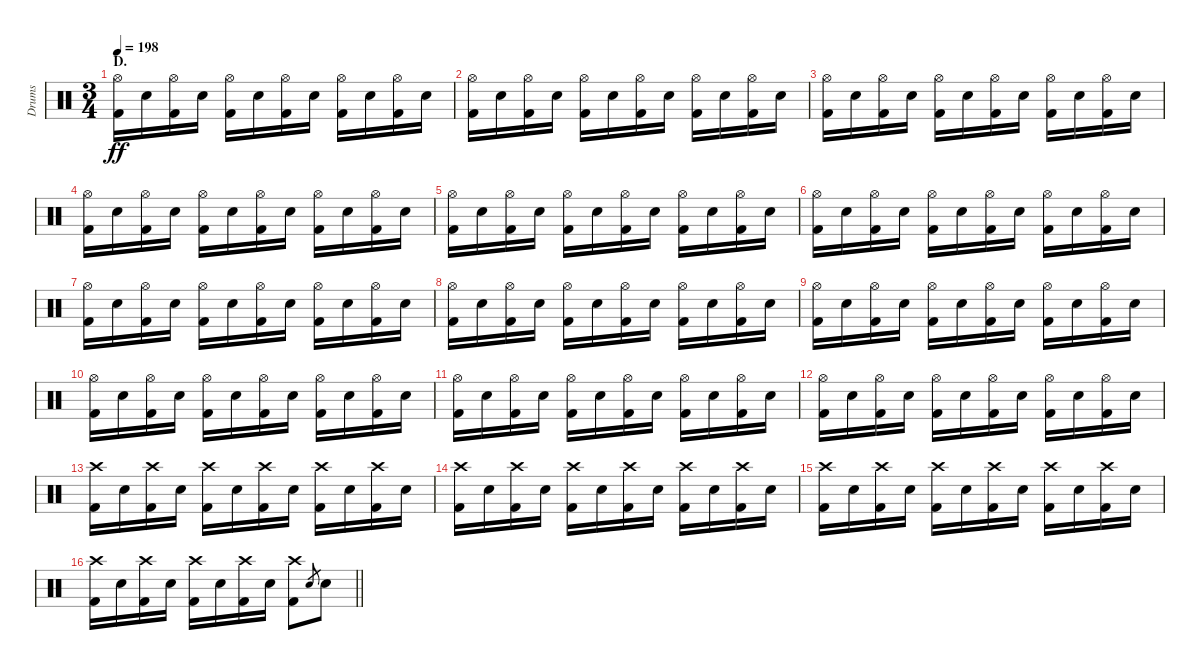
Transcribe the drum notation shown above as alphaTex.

\track ("Drums" "Drums") {instrument percussion}
\staff {score}
\articulation defaults
\ts (3 4)
\section ("" "D.")
\tempo 198
\clef neutral
\ks c
("Hi-Hat (open)" "Kick (hit) 2").16{dy ff volume 13} "Electric Snare (hit)".16 ("Hi-Hat (open)" "Kick (hit) 2").16 "Electric Snare (hit)".16 ("Hi-Hat (open)" "Kick (hit) 2").16 "Electric Snare (hit)".16 ("Hi-Hat (open)" "Kick (hit) 2").16 "Electric Snare (hit)".16 ("Hi-Hat (open)" "Kick (hit) 2").16 "Electric Snare (hit)".16 ("Hi-Hat (open)" "Kick (hit) 2").16 "Electric Snare (hit)".16 |
("Hi-Hat (open)" "Kick (hit) 2").16 "Electric Snare (hit)".16 ("Hi-Hat (open)" "Kick (hit) 2").16 "Electric Snare (hit)".16 ("Hi-Hat (open)" "Kick (hit) 2").16 "Electric Snare (hit)".16 ("Hi-Hat (open)" "Kick (hit) 2").16 "Electric Snare (hit)".16 ("Hi-Hat (open)" "Kick (hit) 2").16 "Electric Snare (hit)".16 ("Hi-Hat (open)" "Kick (hit) 2").16 "Electric Snare (hit)".16 |
("Hi-Hat (open)" "Kick (hit) 2").16 "Electric Snare (hit)".16 ("Hi-Hat (open)" "Kick (hit) 2").16 "Electric Snare (hit)".16 ("Hi-Hat (open)" "Kick (hit) 2").16 "Electric Snare (hit)".16 ("Hi-Hat (open)" "Kick (hit) 2").16 "Electric Snare (hit)".16 ("Hi-Hat (open)" "Kick (hit) 2").16 "Electric Snare (hit)".16 ("Hi-Hat (open)" "Kick (hit) 2").16 "Electric Snare (hit)".16 |
("Hi-Hat (open)" "Kick (hit) 2").16 "Electric Snare (hit)".16 ("Hi-Hat (open)" "Kick (hit) 2").16 "Electric Snare (hit)".16 ("Hi-Hat (open)" "Kick (hit) 2").16 "Electric Snare (hit)".16 ("Hi-Hat (open)" "Kick (hit) 2").16 "Electric Snare (hit)".16 ("Hi-Hat (open)" "Kick (hit) 2").16 "Electric Snare (hit)".16 ("Hi-Hat (open)" "Kick (hit) 2").16 "Electric Snare (hit)".16 |
("Hi-Hat (open)" "Kick (hit) 2").16 "Electric Snare (hit)".16 ("Hi-Hat (open)" "Kick (hit) 2").16 "Electric Snare (hit)".16 ("Hi-Hat (open)" "Kick (hit) 2").16 "Electric Snare (hit)".16 ("Hi-Hat (open)" "Kick (hit) 2").16 "Electric Snare (hit)".16 ("Hi-Hat (open)" "Kick (hit) 2").16 "Electric Snare (hit)".16 ("Hi-Hat (open)" "Kick (hit) 2").16 "Electric Snare (hit)".16 |
("Hi-Hat (open)" "Kick (hit) 2").16 "Electric Snare (hit)".16 ("Hi-Hat (open)" "Kick (hit) 2").16 "Electric Snare (hit)".16 ("Hi-Hat (open)" "Kick (hit) 2").16 "Electric Snare (hit)".16 ("Hi-Hat (open)" "Kick (hit) 2").16 "Electric Snare (hit)".16 ("Hi-Hat (open)" "Kick (hit) 2").16 "Electric Snare (hit)".16 ("Hi-Hat (open)" "Kick (hit) 2").16 "Electric Snare (hit)".16 |
("Hi-Hat (open)" "Kick (hit) 2").16 "Electric Snare (hit)".16 ("Hi-Hat (open)" "Kick (hit) 2").16 "Electric Snare (hit)".16 ("Hi-Hat (open)" "Kick (hit) 2").16 "Electric Snare (hit)".16 ("Hi-Hat (open)" "Kick (hit) 2").16 "Electric Snare (hit)".16 ("Hi-Hat (open)" "Kick (hit) 2").16 "Electric Snare (hit)".16 ("Hi-Hat (open)" "Kick (hit) 2").16 "Electric Snare (hit)".16 |
("Hi-Hat (open)" "Kick (hit) 2").16 "Electric Snare (hit)".16 ("Hi-Hat (open)" "Kick (hit) 2").16 "Electric Snare (hit)".16 ("Hi-Hat (open)" "Kick (hit) 2").16 "Electric Snare (hit)".16 ("Hi-Hat (open)" "Kick (hit) 2").16 "Electric Snare (hit)".16 ("Hi-Hat (open)" "Kick (hit) 2").16 "Electric Snare (hit)".16 ("Hi-Hat (open)" "Kick (hit) 2").16 "Electric Snare (hit)".16 |
("Hi-Hat (open)" "Kick (hit) 2").16 "Electric Snare (hit)".16 ("Hi-Hat (open)" "Kick (hit) 2").16 "Electric Snare (hit)".16 ("Hi-Hat (open)" "Kick (hit) 2").16 "Electric Snare (hit)".16 ("Hi-Hat (open)" "Kick (hit) 2").16 "Electric Snare (hit)".16 ("Hi-Hat (open)" "Kick (hit) 2").16 "Electric Snare (hit)".16 ("Hi-Hat (open)" "Kick (hit) 2").16 "Electric Snare (hit)".16 |
("Hi-Hat (open)" "Kick (hit) 2").16 "Electric Snare (hit)".16 ("Hi-Hat (open)" "Kick (hit) 2").16 "Electric Snare (hit)".16 ("Hi-Hat (open)" "Kick (hit) 2").16 "Electric Snare (hit)".16 ("Hi-Hat (open)" "Kick (hit) 2").16 "Electric Snare (hit)".16 ("Hi-Hat (open)" "Kick (hit) 2").16 "Electric Snare (hit)".16 ("Hi-Hat (open)" "Kick (hit) 2").16 "Electric Snare (hit)".16 |
("Hi-Hat (open)" "Kick (hit) 2").16 "Electric Snare (hit)".16 ("Hi-Hat (open)" "Kick (hit) 2").16 "Electric Snare (hit)".16 ("Hi-Hat (open)" "Kick (hit) 2").16 "Electric Snare (hit)".16 ("Hi-Hat (open)" "Kick (hit) 2").16 "Electric Snare (hit)".16 ("Hi-Hat (open)" "Kick (hit) 2").16 "Electric Snare (hit)".16 ("Hi-Hat (open)" "Kick (hit) 2").16 "Electric Snare (hit)".16 |
("Hi-Hat (open)" "Kick (hit) 2").16 "Electric Snare (hit)".16 ("Hi-Hat (open)" "Kick (hit) 2").16 "Electric Snare (hit)".16 ("Hi-Hat (open)" "Kick (hit) 2").16 "Electric Snare (hit)".16 ("Hi-Hat (open)" "Kick (hit) 2").16 "Electric Snare (hit)".16 ("Hi-Hat (open)" "Kick (hit) 2").16 "Electric Snare (hit)".16 ("Hi-Hat (open)" "Kick (hit) 2").16 "Electric Snare (hit)".16 |
("Crash high (hit)" "Kick (hit) 2").16 "Electric Snare (hit)".16 ("Crash high (hit)" "Kick (hit) 2").16 "Electric Snare (hit)".16 ("Crash high (hit)" "Kick (hit) 2").16 "Electric Snare (hit)".16 ("Crash high (hit)" "Kick (hit) 2").16 "Electric Snare (hit)".16 ("Crash high (hit)" "Kick (hit) 2").16 "Electric Snare (hit)".16 ("Crash high (hit)" "Kick (hit) 2").16 "Electric Snare (hit)".16 |
("Crash high (hit)" "Kick (hit) 2").16 "Electric Snare (hit)".16 ("Crash high (hit)" "Kick (hit) 2").16 "Electric Snare (hit)".16 ("Crash high (hit)" "Kick (hit) 2").16 "Electric Snare (hit)".16 ("Crash high (hit)" "Kick (hit) 2").16 "Electric Snare (hit)".16 ("Crash high (hit)" "Kick (hit) 2").16 "Electric Snare (hit)".16 ("Crash high (hit)" "Kick (hit) 2").16 "Electric Snare (hit)".16 |
("Crash high (hit)" "Kick (hit) 2").16 "Electric Snare (hit)".16 ("Crash high (hit)" "Kick (hit) 2").16 "Electric Snare (hit)".16 ("Crash high (hit)" "Kick (hit) 2").16 "Electric Snare (hit)".16 ("Crash high (hit)" "Kick (hit) 2").16 "Electric Snare (hit)".16 ("Crash high (hit)" "Kick (hit) 2").16 "Electric Snare (hit)".16 ("Crash high (hit)" "Kick (hit) 2").16 "Electric Snare (hit)".16 |
\barLineRight lightlight
("Crash high (hit)" "Kick (hit) 2").16 "Electric Snare (hit)".16 ("Crash high (hit)" "Kick (hit) 2").16 "Electric Snare (hit)".16 ("Crash high (hit)" "Kick (hit) 2").16 "Electric Snare (hit)".16 ("Crash high (hit)" "Kick (hit) 2").16 "Electric Snare (hit)".16 ("Crash high (hit)" "Kick (hit) 2").8 "Electric Snare (hit)".8{gr} "Electric Snare (hit)".8
